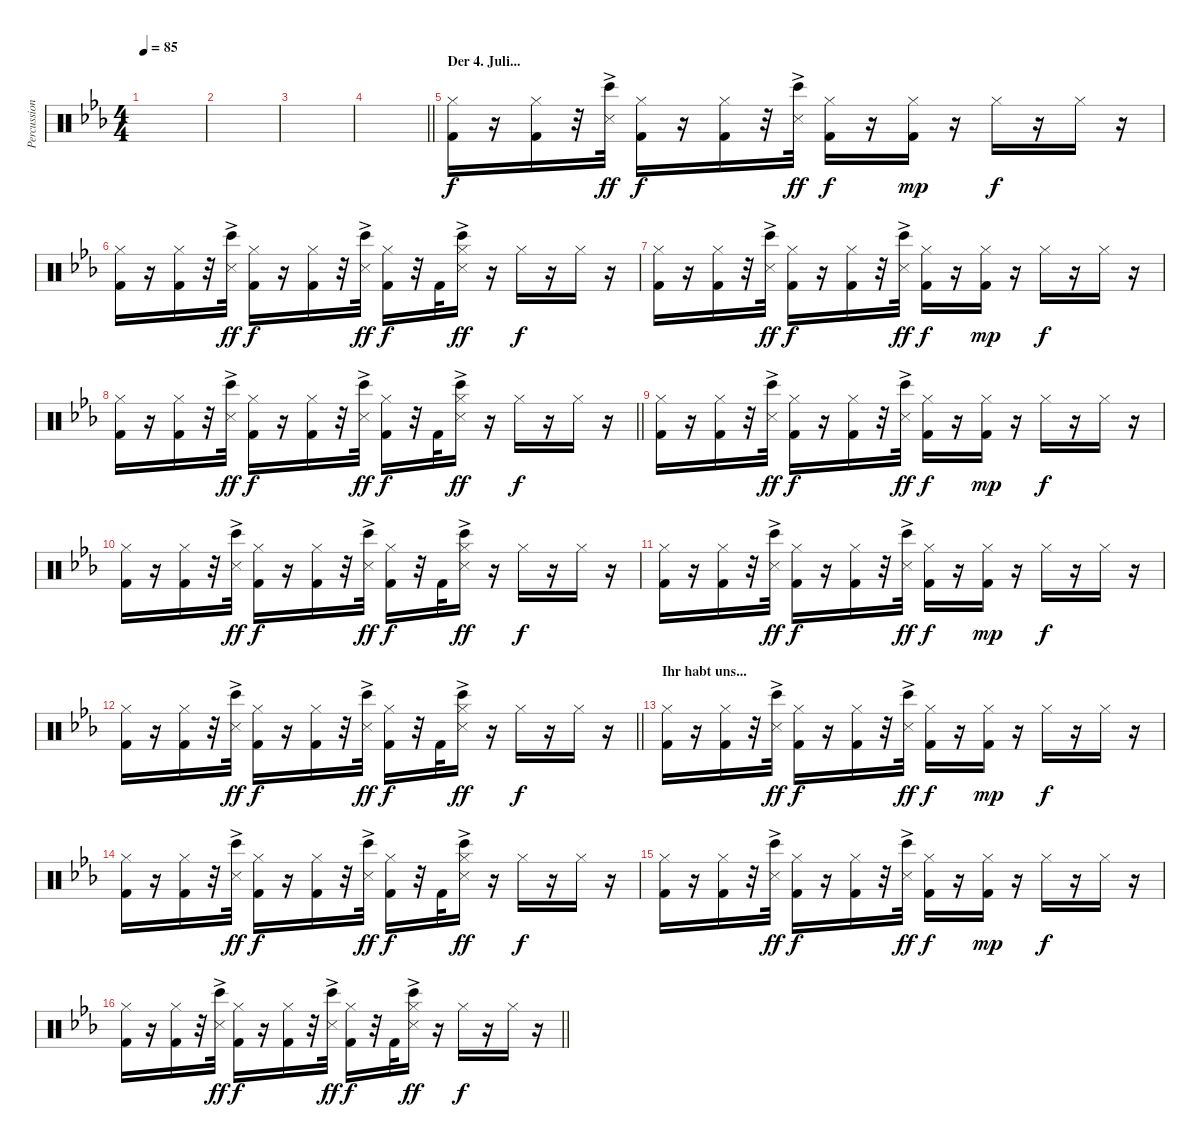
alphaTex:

\track ("Percussion" "Percussion") {instrument percussion}
\staff {score}
\articulation defaults
\ts (4 4)
\tempo 85
\clef neutral
\ks cminor
|
|
|
\barLineRight lightlight
|
\section ("" "Der 4. Juli...")
("Hi-Hat (closed)" "Kick (hit) 2").16{dy f} r.16 ("Hi-Hat (closed)" "Kick (hit) 2").16 r.32 ("Bongo High (hit)" "Metronome (hit)"{ac}).32{dy ff} ("Hi-Hat (closed)" "Kick (hit) 2").16{dy f} r.16 ("Hi-Hat (closed)" "Kick (hit) 2").16 r.32 ("Bongo High (hit)" "Metronome (hit)"{ac}).32{dy ff} ("Hi-Hat (closed)" "Kick (hit) 2").16{dy f} r.16 ("Hi-Hat (closed)" "Kick (hit) 2").16{dy mp} r.16 "Hi-Hat (closed)".16{dy f} r.16 "Hi-Hat (closed)".16 r.16 |
("Hi-Hat (closed)" "Kick (hit) 2").16 r.16 ("Hi-Hat (closed)" "Kick (hit) 2").16 r.32 ("Bongo High (hit)" "Metronome (hit)"{ac}).32{dy ff} ("Hi-Hat (closed)" "Kick (hit) 2").16{dy f} r.16 ("Hi-Hat (closed)" "Kick (hit) 2").16 r.32 ("Bongo High (hit)" "Metronome (hit)"{ac}).32{dy ff} ("Hi-Hat (closed)" "Kick (hit) 2").16{dy f} r.32 "Kick (hit) 2".32 ("Hi-Hat (closed)" "Bongo High (hit)" "Metronome (hit)"{ac}).16{dy ff} r.16 "Hi-Hat (closed)".16{dy f} r.16 "Hi-Hat (closed)".16 r.16 |
("Hi-Hat (closed)" "Kick (hit) 2").16 r.16 ("Hi-Hat (closed)" "Kick (hit) 2").16 r.32 ("Bongo High (hit)" "Metronome (hit)"{ac}).32{dy ff} ("Hi-Hat (closed)" "Kick (hit) 2").16{dy f} r.16 ("Hi-Hat (closed)" "Kick (hit) 2").16 r.32 ("Bongo High (hit)" "Metronome (hit)"{ac}).32{dy ff} ("Hi-Hat (closed)" "Kick (hit) 2").16{dy f} r.16 ("Hi-Hat (closed)" "Kick (hit) 2").16{dy mp} r.16 "Hi-Hat (closed)".16{dy f} r.16 "Hi-Hat (closed)".16 r.16 |
\barLineRight lightlight
("Hi-Hat (closed)" "Kick (hit) 2").16 r.16 ("Hi-Hat (closed)" "Kick (hit) 2").16 r.32 ("Bongo High (hit)" "Metronome (hit)"{ac}).32{dy ff} ("Hi-Hat (closed)" "Kick (hit) 2").16{dy f} r.16 ("Hi-Hat (closed)" "Kick (hit) 2").16 r.32 ("Bongo High (hit)" "Metronome (hit)"{ac}).32{dy ff} ("Hi-Hat (closed)" "Kick (hit) 2").16{dy f} r.32 "Kick (hit) 2".32 ("Hi-Hat (closed)" "Bongo High (hit)" "Metronome (hit)"{ac}).16{dy ff} r.16 "Hi-Hat (closed)".16{dy f} r.16 "Hi-Hat (closed)".16 r.16 |
("Hi-Hat (closed)" "Kick (hit) 2").16 r.16 ("Hi-Hat (closed)" "Kick (hit) 2").16 r.32 ("Bongo High (hit)" "Metronome (hit)"{ac}).32{dy ff} ("Hi-Hat (closed)" "Kick (hit) 2").16{dy f} r.16 ("Hi-Hat (closed)" "Kick (hit) 2").16 r.32 ("Bongo High (hit)" "Metronome (hit)"{ac}).32{dy ff} ("Hi-Hat (closed)" "Kick (hit) 2").16{dy f} r.16 ("Hi-Hat (closed)" "Kick (hit) 2").16{dy mp} r.16 "Hi-Hat (closed)".16{dy f} r.16 "Hi-Hat (closed)".16 r.16 |
("Hi-Hat (closed)" "Kick (hit) 2").16 r.16 ("Hi-Hat (closed)" "Kick (hit) 2").16 r.32 ("Bongo High (hit)" "Metronome (hit)"{ac}).32{dy ff} ("Hi-Hat (closed)" "Kick (hit) 2").16{dy f} r.16 ("Hi-Hat (closed)" "Kick (hit) 2").16 r.32 ("Bongo High (hit)" "Metronome (hit)"{ac}).32{dy ff} ("Hi-Hat (closed)" "Kick (hit) 2").16{dy f} r.32 "Kick (hit) 2".32 ("Hi-Hat (closed)" "Bongo High (hit)" "Metronome (hit)"{ac}).16{dy ff} r.16 "Hi-Hat (closed)".16{dy f} r.16 "Hi-Hat (closed)".16 r.16 |
("Hi-Hat (closed)" "Kick (hit) 2").16 r.16 ("Hi-Hat (closed)" "Kick (hit) 2").16 r.32 ("Bongo High (hit)" "Metronome (hit)"{ac}).32{dy ff} ("Hi-Hat (closed)" "Kick (hit) 2").16{dy f} r.16 ("Hi-Hat (closed)" "Kick (hit) 2").16 r.32 ("Bongo High (hit)" "Metronome (hit)"{ac}).32{dy ff} ("Hi-Hat (closed)" "Kick (hit) 2").16{dy f} r.16 ("Hi-Hat (closed)" "Kick (hit) 2").16{dy mp} r.16 "Hi-Hat (closed)".16{dy f} r.16 "Hi-Hat (closed)".16 r.16 |
\barLineRight lightlight
("Hi-Hat (closed)" "Kick (hit) 2").16 r.16 ("Hi-Hat (closed)" "Kick (hit) 2").16 r.32 ("Bongo High (hit)" "Metronome (hit)"{ac}).32{dy ff} ("Hi-Hat (closed)" "Kick (hit) 2").16{dy f} r.16 ("Hi-Hat (closed)" "Kick (hit) 2").16 r.32 ("Bongo High (hit)" "Metronome (hit)"{ac}).32{dy ff} ("Hi-Hat (closed)" "Kick (hit) 2").16{dy f} r.32 "Kick (hit) 2".32 ("Hi-Hat (closed)" "Bongo High (hit)" "Metronome (hit)"{ac}).16{dy ff} r.16 "Hi-Hat (closed)".16{dy f} r.16 "Hi-Hat (closed)".16 r.16 |
\section ("" "Ihr habt uns...")
("Hi-Hat (closed)" "Kick (hit) 2").16 r.16 ("Hi-Hat (closed)" "Kick (hit) 2").16 r.32 ("Bongo High (hit)" "Metronome (hit)"{ac}).32{dy ff} ("Hi-Hat (closed)" "Kick (hit) 2").16{dy f} r.16 ("Hi-Hat (closed)" "Kick (hit) 2").16 r.32 ("Bongo High (hit)" "Metronome (hit)"{ac}).32{dy ff} ("Hi-Hat (closed)" "Kick (hit) 2").16{dy f} r.16 ("Hi-Hat (closed)" "Kick (hit) 2").16{dy mp} r.16 "Hi-Hat (closed)".16{dy f} r.16 "Hi-Hat (closed)".16 r.16 |
("Hi-Hat (closed)" "Kick (hit) 2").16 r.16 ("Hi-Hat (closed)" "Kick (hit) 2").16 r.32 ("Bongo High (hit)" "Metronome (hit)"{ac}).32{dy ff} ("Hi-Hat (closed)" "Kick (hit) 2").16{dy f} r.16 ("Hi-Hat (closed)" "Kick (hit) 2").16 r.32 ("Bongo High (hit)" "Metronome (hit)"{ac}).32{dy ff} ("Hi-Hat (closed)" "Kick (hit) 2").16{dy f} r.32 "Kick (hit) 2".32 ("Hi-Hat (closed)" "Bongo High (hit)" "Metronome (hit)"{ac}).16{dy ff} r.16 "Hi-Hat (closed)".16{dy f} r.16 "Hi-Hat (closed)".16 r.16 |
("Hi-Hat (closed)" "Kick (hit) 2").16 r.16 ("Hi-Hat (closed)" "Kick (hit) 2").16 r.32 ("Bongo High (hit)" "Metronome (hit)"{ac}).32{dy ff} ("Hi-Hat (closed)" "Kick (hit) 2").16{dy f} r.16 ("Hi-Hat (closed)" "Kick (hit) 2").16 r.32 ("Bongo High (hit)" "Metronome (hit)"{ac}).32{dy ff} ("Hi-Hat (closed)" "Kick (hit) 2").16{dy f} r.16 ("Hi-Hat (closed)" "Kick (hit) 2").16{dy mp} r.16 "Hi-Hat (closed)".16{dy f} r.16 "Hi-Hat (closed)".16 r.16 |
\barLineRight lightlight
("Hi-Hat (closed)" "Kick (hit) 2").16 r.16 ("Hi-Hat (closed)" "Kick (hit) 2").16 r.32 ("Bongo High (hit)" "Metronome (hit)"{ac}).32{dy ff} ("Hi-Hat (closed)" "Kick (hit) 2").16{dy f} r.16 ("Hi-Hat (closed)" "Kick (hit) 2").16 r.32 ("Bongo High (hit)" "Metronome (hit)"{ac}).32{dy ff} ("Hi-Hat (closed)" "Kick (hit) 2").16{dy f} r.32 "Kick (hit) 2".32 ("Hi-Hat (closed)" "Bongo High (hit)" "Metronome (hit)"{ac}).16{dy ff} r.16 "Hi-Hat (closed)".16{dy f} r.16 "Hi-Hat (closed)".16 r.16
